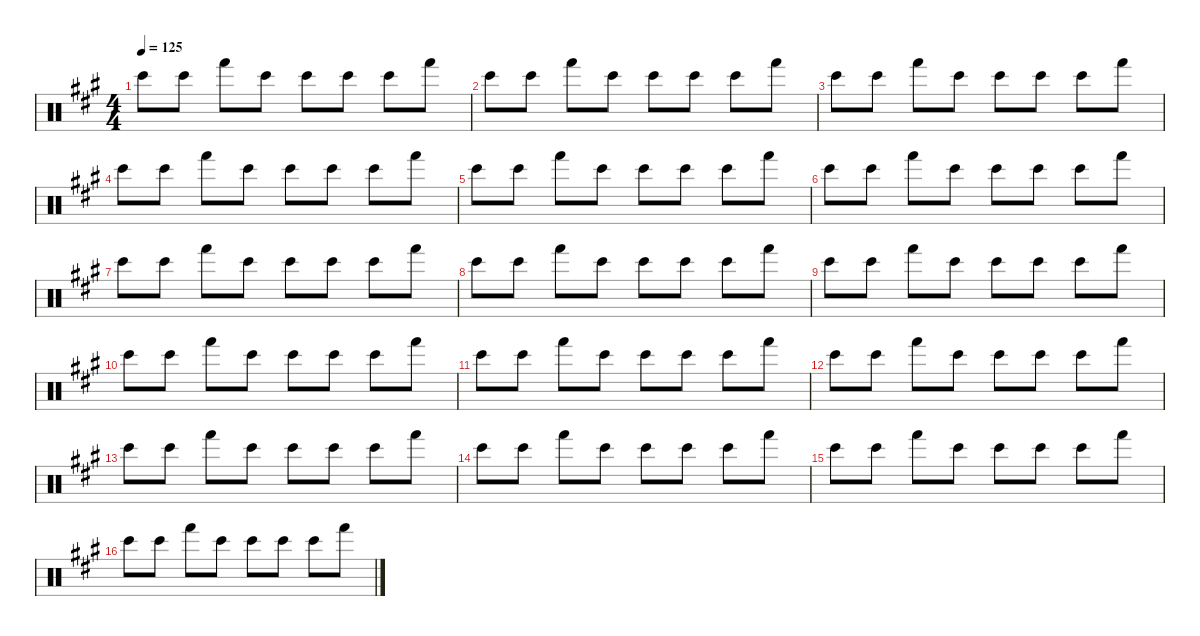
\defaultSystemsLayout 4
\hideDynamics
\bracketExtendMode nobrackets
\singleTrackTrackNamePolicy hidden
\multiTrackTrackNamePolicy hidden
\otherSystemsTrackNameOrientation horizontal
\track ("Percussion" "drm.") {instrument percussion}
\staff {score}
\articulation defaults
\ts (4 4)
\tempo 125
\clef neutral
\ks a "Bongo High (hit)"{acc forcenatural}.8{dy f beam Down} "Bongo High (hit)"{acc forcenatural}.8{beam Down} "Hand (hit)"{acc forcenatural}.8{beam Down} "Bongo High (hit)"{acc forcenatural}.8{beam Down} "Bongo High (hit)"{acc forcenatural}.8{beam Down} "Bongo High (hit)"{acc forcenatural}.8{beam Down} "Bongo High (hit)"{acc forcenatural}.8{beam Down} "Hand (hit)"{acc forcenatural}.8{beam Down}
|
"Bongo High (hit)"{acc forcenatural}.8{beam Down} "Bongo High (hit)"{acc forcenatural}.8{beam Down} "Hand (hit)"{acc forcenatural}.8{beam Down} "Bongo High (hit)"{acc forcenatural}.8{beam Down} "Bongo High (hit)"{acc forcenatural}.8{beam Down} "Bongo High (hit)"{acc forcenatural}.8{beam Down} "Bongo High (hit)"{acc forcenatural}.8{beam Down} "Hand (hit)"{acc forcenatural}.8{beam Down} |
"Bongo High (hit)"{acc forcenatural}.8{beam Down} "Bongo High (hit)"{acc forcenatural}.8{beam Down} "Hand (hit)"{acc forcenatural}.8{beam Down} "Bongo High (hit)"{acc forcenatural}.8{beam Down} "Bongo High (hit)"{acc forcenatural}.8{beam Down} "Bongo High (hit)"{acc forcenatural}.8{beam Down} "Bongo High (hit)"{acc forcenatural}.8{beam Down} "Hand (hit)"{acc forcenatural}.8{beam Down} |
"Bongo High (hit)"{acc forcenatural}.8{beam Down} "Bongo High (hit)"{acc forcenatural}.8{beam Down} "Hand (hit)"{acc forcenatural}.8{beam Down} "Bongo High (hit)"{acc forcenatural}.8{beam Down} "Bongo High (hit)"{acc forcenatural}.8{beam Down} "Bongo High (hit)"{acc forcenatural}.8{beam Down} "Bongo High (hit)"{acc forcenatural}.8{beam Down} "Hand (hit)"{acc forcenatural}.8{beam Down} |
"Bongo High (hit)"{acc forcenatural}.8{beam Down} "Bongo High (hit)"{acc forcenatural}.8{beam Down} "Hand (hit)"{acc forcenatural}.8{beam Down} "Bongo High (hit)"{acc forcenatural}.8{beam Down} "Bongo High (hit)"{acc forcenatural}.8{beam Down} "Bongo High (hit)"{acc forcenatural}.8{beam Down} "Bongo High (hit)"{acc forcenatural}.8{beam Down} "Hand (hit)"{acc forcenatural}.8{beam Down} |
"Bongo High (hit)"{acc forcenatural}.8{beam Down} "Bongo High (hit)"{acc forcenatural}.8{beam Down} "Hand (hit)"{acc forcenatural}.8{beam Down} "Bongo High (hit)"{acc forcenatural}.8{beam Down} "Bongo High (hit)"{acc forcenatural}.8{beam Down} "Bongo High (hit)"{acc forcenatural}.8{beam Down} "Bongo High (hit)"{acc forcenatural}.8{beam Down} "Hand (hit)"{acc forcenatural}.8{beam Down} |
"Bongo High (hit)"{acc forcenatural}.8{beam Down} "Bongo High (hit)"{acc forcenatural}.8{beam Down} "Hand (hit)"{acc forcenatural}.8{beam Down} "Bongo High (hit)"{acc forcenatural}.8{beam Down} "Bongo High (hit)"{acc forcenatural}.8{beam Down} "Bongo High (hit)"{acc forcenatural}.8{beam Down} "Bongo High (hit)"{acc forcenatural}.8{beam Down} "Hand (hit)"{acc forcenatural}.8{beam Down} |
"Bongo High (hit)"{acc forcenatural}.8{beam Down} "Bongo High (hit)"{acc forcenatural}.8{beam Down} "Hand (hit)"{acc forcenatural}.8{beam Down} "Bongo High (hit)"{acc forcenatural}.8{beam Down} "Bongo High (hit)"{acc forcenatural}.8{beam Down} "Bongo High (hit)"{acc forcenatural}.8{beam Down} "Bongo High (hit)"{acc forcenatural}.8{beam Down} "Hand (hit)"{acc forcenatural}.8{beam Down} |
"Bongo High (hit)"{acc forcenatural}.8{beam Down} "Bongo High (hit)"{acc forcenatural}.8{beam Down} "Hand (hit)"{acc forcenatural}.8{beam Down} "Bongo High (hit)"{acc forcenatural}.8{beam Down} "Bongo High (hit)"{acc forcenatural}.8{beam Down} "Bongo High (hit)"{acc forcenatural}.8{beam Down} "Bongo High (hit)"{acc forcenatural}.8{beam Down} "Hand (hit)"{acc forcenatural}.8{beam Down} |
"Bongo High (hit)"{acc forcenatural}.8{beam Down} "Bongo High (hit)"{acc forcenatural}.8{beam Down} "Hand (hit)"{acc forcenatural}.8{beam Down} "Bongo High (hit)"{acc forcenatural}.8{beam Down} "Bongo High (hit)"{acc forcenatural}.8{beam Down} "Bongo High (hit)"{acc forcenatural}.8{beam Down} "Bongo High (hit)"{acc forcenatural}.8{beam Down} "Hand (hit)"{acc forcenatural}.8{beam Down} |
"Bongo High (hit)"{acc forcenatural}.8{beam Down} "Bongo High (hit)"{acc forcenatural}.8{beam Down} "Hand (hit)"{acc forcenatural}.8{beam Down} "Bongo High (hit)"{acc forcenatural}.8{beam Down} "Bongo High (hit)"{acc forcenatural}.8{beam Down} "Bongo High (hit)"{acc forcenatural}.8{beam Down} "Bongo High (hit)"{acc forcenatural}.8{beam Down} "Hand (hit)"{acc forcenatural}.8{beam Down} |
"Bongo High (hit)"{acc forcenatural}.8{beam Down} "Bongo High (hit)"{acc forcenatural}.8{beam Down} "Hand (hit)"{acc forcenatural}.8{beam Down} "Bongo High (hit)"{acc forcenatural}.8{beam Down} "Bongo High (hit)"{acc forcenatural}.8{beam Down} "Bongo High (hit)"{acc forcenatural}.8{beam Down} "Bongo High (hit)"{acc forcenatural}.8{beam Down} "Hand (hit)"{acc forcenatural}.8{beam Down} |
"Bongo High (hit)"{acc forcenatural}.8{beam Down} "Bongo High (hit)"{acc forcenatural}.8{beam Down} "Hand (hit)"{acc forcenatural}.8{beam Down} "Bongo High (hit)"{acc forcenatural}.8{beam Down} "Bongo High (hit)"{acc forcenatural}.8{beam Down} "Bongo High (hit)"{acc forcenatural}.8{beam Down} "Bongo High (hit)"{acc forcenatural}.8{beam Down} "Hand (hit)"{acc forcenatural}.8{beam Down} |
"Bongo High (hit)"{acc forcenatural}.8{beam Down} "Bongo High (hit)"{acc forcenatural}.8{beam Down} "Hand (hit)"{acc forcenatural}.8{beam Down} "Bongo High (hit)"{acc forcenatural}.8{beam Down} "Bongo High (hit)"{acc forcenatural}.8{beam Down} "Bongo High (hit)"{acc forcenatural}.8{beam Down} "Bongo High (hit)"{acc forcenatural}.8{beam Down} "Hand (hit)"{acc forcenatural}.8{beam Down} |
"Bongo High (hit)"{acc forcenatural}.8{beam Down} "Bongo High (hit)"{acc forcenatural}.8{beam Down} "Hand (hit)"{acc forcenatural}.8{beam Down} "Bongo High (hit)"{acc forcenatural}.8{beam Down} "Bongo High (hit)"{acc forcenatural}.8{beam Down} "Bongo High (hit)"{acc forcenatural}.8{beam Down} "Bongo High (hit)"{acc forcenatural}.8{beam Down} "Hand (hit)"{acc forcenatural}.8{beam Down} |
"Bongo High (hit)"{acc forcenatural}.8{beam Down} "Bongo High (hit)"{acc forcenatural}.8{beam Down} "Hand (hit)"{acc forcenatural}.8{beam Down} "Bongo High (hit)"{acc forcenatural}.8{beam Down} "Bongo High (hit)"{acc forcenatural}.8{beam Down} "Bongo High (hit)"{acc forcenatural}.8{beam Down} "Bongo High (hit)"{acc forcenatural}.8{beam Down} "Hand (hit)"{acc forcenatural}.8{beam Down}
